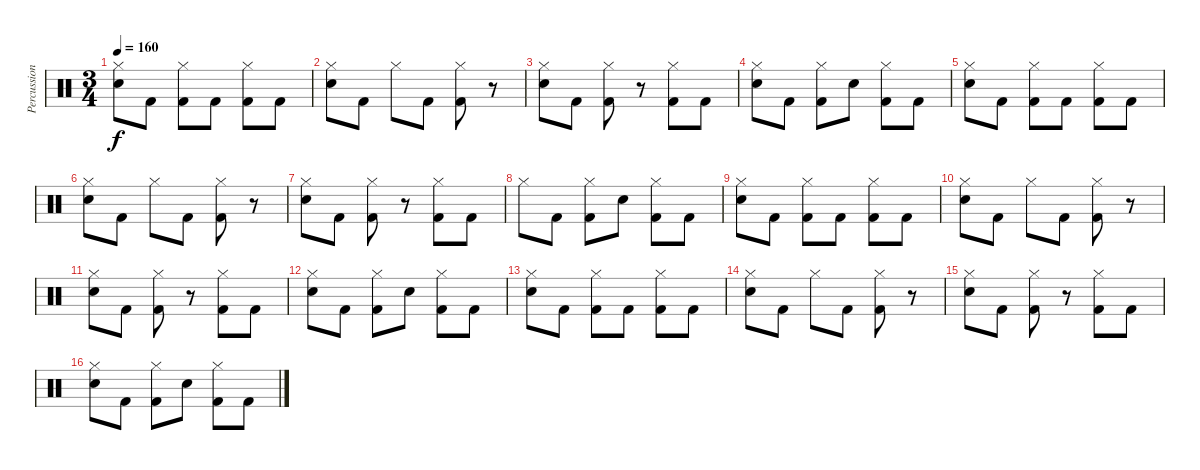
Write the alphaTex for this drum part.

\track ("Percussion" "Percussion") {instrument percussion}
\staff {score}
\articulation defaults
\ts (3 4)
\tempo 160
\clef neutral
\ks c
("Hi-Hat (closed)" "Electric Snare (hit)").8{dy f} "Kick (hit) 2".8 ("Hi-Hat (closed)" "Kick (hit) 2").8 "Kick (hit) 2".8 ("Hi-Hat (closed)" "Kick (hit) 2").8 "Kick (hit) 2".8 |
("Hi-Hat (closed)" "Electric Snare (hit)").8 "Kick (hit) 2".8 "Hi-Hat (closed)".8 "Kick (hit) 2".8 ("Hi-Hat (closed)" "Kick (hit) 2").8 r.8 |
("Hi-Hat (closed)" "Electric Snare (hit)").8 "Kick (hit) 2".8 ("Hi-Hat (closed)" "Kick (hit) 2").8 r.8 ("Hi-Hat (closed)" "Kick (hit) 2").8 "Kick (hit) 2".8 |
("Hi-Hat (closed)" "Electric Snare (hit)").8 "Kick (hit) 2".8 ("Hi-Hat (closed)" "Kick (hit) 2").8 "Electric Snare (hit)".8 ("Hi-Hat (closed)" "Kick (hit) 2").8 "Kick (hit) 2".8 |
("Hi-Hat (closed)" "Electric Snare (hit)").8 "Kick (hit) 2".8 ("Hi-Hat (closed)" "Kick (hit) 2").8 "Kick (hit) 2".8 ("Hi-Hat (closed)" "Kick (hit) 2").8 "Kick (hit) 2".8 |
("Hi-Hat (closed)" "Electric Snare (hit)").8 "Kick (hit) 2".8 "Hi-Hat (closed)".8 "Kick (hit) 2".8 ("Hi-Hat (closed)" "Kick (hit) 2").8 r.8 |
("Hi-Hat (closed)" "Electric Snare (hit)").8 "Kick (hit) 2".8 ("Hi-Hat (closed)" "Kick (hit) 2").8 r.8 ("Hi-Hat (closed)" "Kick (hit) 2").8 "Kick (hit) 2".8 |
"Hi-Hat (closed)".8 "Kick (hit) 2".8 ("Hi-Hat (closed)" "Kick (hit) 2").8 "Electric Snare (hit)".8 ("Hi-Hat (closed)" "Kick (hit) 2").8 "Kick (hit) 2".8 |
("Hi-Hat (closed)" "Electric Snare (hit)").8 "Kick (hit) 2".8 ("Hi-Hat (closed)" "Kick (hit) 2").8 "Kick (hit) 2".8 ("Hi-Hat (closed)" "Kick (hit) 2").8 "Kick (hit) 2".8 |
("Hi-Hat (closed)" "Electric Snare (hit)").8 "Kick (hit) 2".8 "Hi-Hat (closed)".8 "Kick (hit) 2".8 ("Hi-Hat (closed)" "Kick (hit) 2").8 r.8 |
("Hi-Hat (closed)" "Electric Snare (hit)").8 "Kick (hit) 2".8 ("Hi-Hat (closed)" "Kick (hit) 2").8 r.8 ("Hi-Hat (closed)" "Kick (hit) 2").8 "Kick (hit) 2".8 |
("Hi-Hat (closed)" "Electric Snare (hit)").8 "Kick (hit) 2".8 ("Hi-Hat (closed)" "Kick (hit) 2").8 "Electric Snare (hit)".8 ("Hi-Hat (closed)" "Kick (hit) 2").8 "Kick (hit) 2".8 |
("Hi-Hat (closed)" "Electric Snare (hit)").8 "Kick (hit) 2".8 ("Hi-Hat (closed)" "Kick (hit) 2").8 "Kick (hit) 2".8 ("Hi-Hat (closed)" "Kick (hit) 2").8 "Kick (hit) 2".8 |
("Hi-Hat (closed)" "Electric Snare (hit)").8 "Kick (hit) 2".8 "Hi-Hat (closed)".8 "Kick (hit) 2".8 ("Hi-Hat (closed)" "Kick (hit) 2").8 r.8 |
("Hi-Hat (closed)" "Electric Snare (hit)").8 "Kick (hit) 2".8 ("Hi-Hat (closed)" "Kick (hit) 2").8 r.8 ("Hi-Hat (closed)" "Kick (hit) 2").8 "Kick (hit) 2".8 |
("Hi-Hat (closed)" "Electric Snare (hit)").8 "Kick (hit) 2".8 ("Hi-Hat (closed)" "Kick (hit) 2").8 "Electric Snare (hit)".8 ("Hi-Hat (closed)" "Kick (hit) 2").8 "Kick (hit) 2".8
